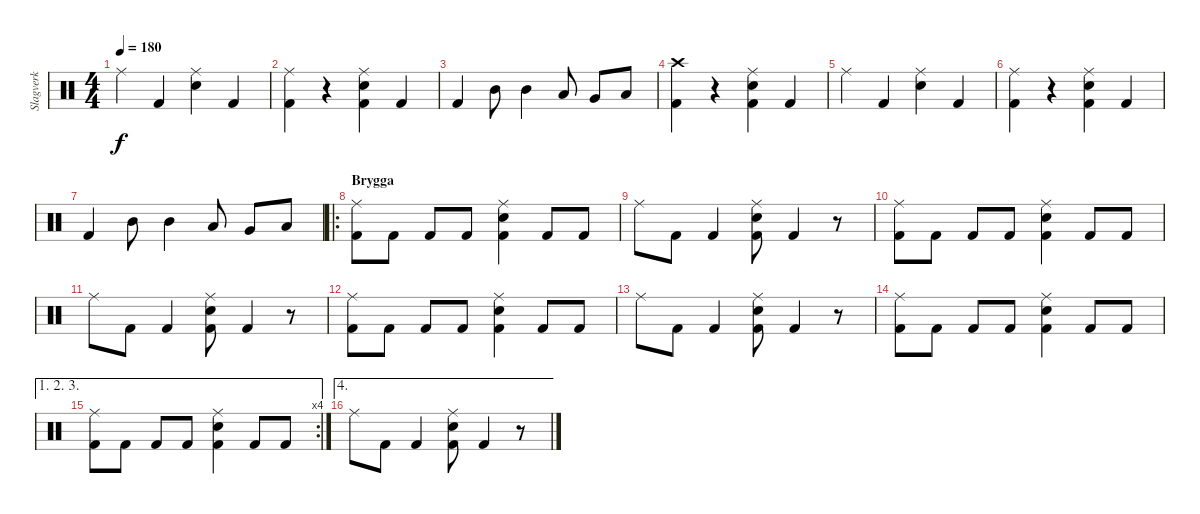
\track ("Slagverk" "Slagverk") {instrument percussion}
\staff {score}
\articulation defaults
\ts (4 4)
\tempo 180
\clef neutral
\ks c "Ride (middle)".4{dy f} "Kick (hit) 2".4
("Snare (hit) 2" "Ride (middle)").4 "Kick (hit) 2".4 |
("Kick (hit) 2" "Ride (middle)").4 r.4 ("Kick (hit) 2" "Snare (hit) 2" "Ride (middle)").4 "Kick (hit) 2".4 |
"Kick (hit) 2".4 "Mid Tom (hit)".8 "Mid Tom (hit)".4 "Low Tom (hit)".8 "Very Low Tom (hit)".8 "Low Floor Tom (hit)".8 |
("Kick (hit) 2" "Crash high (hit)").4 r.4 ("Kick (hit) 2" "Snare (hit) 2" "Ride (middle)").4 "Kick (hit) 2".4 |
"Ride (middle)".4 "Kick (hit) 2".4 ("Snare (hit) 2" "Ride (middle)").4 "Kick (hit) 2".4 |
("Kick (hit) 2" "Ride (middle)").4 r.4 ("Kick (hit) 2" "Snare (hit) 2" "Ride (middle)").4 "Kick (hit) 2".4 |
"Kick (hit) 2".4 "Mid Tom (hit)".8 "Mid Tom (hit)".4 "Low Tom (hit)".8 "Very Low Tom (hit)".8 "Low Floor Tom (hit)".8 |
\ro
\section ("" "Brygga")
("Kick (hit) 2" "Ride (middle)").8 "Kick (hit) 2".8 "Kick (hit) 2".8 "Kick (hit) 2".8 ("Kick (hit) 2" "Snare (hit) 2" "Ride (middle)").4 "Kick (hit) 2".8 "Kick (hit) 2".8 |
"Ride (middle)".8 "Kick (hit) 2".8 "Kick (hit) 2".4 ("Kick (hit) 2" "Snare (hit) 2" "Ride (middle)").8 "Kick (hit) 2".4 r.8 |
("Kick (hit) 2" "Ride (middle)").8 "Kick (hit) 2".8 "Kick (hit) 2".8 "Kick (hit) 2".8 ("Kick (hit) 2" "Snare (hit) 2" "Ride (middle)").4 "Kick (hit) 2".8 "Kick (hit) 2".8 |
"Ride (middle)".8 "Kick (hit) 2".8 "Kick (hit) 2".4 ("Kick (hit) 2" "Snare (hit) 2" "Ride (middle)").8 "Kick (hit) 2".4 r.8 |
("Kick (hit) 2" "Ride (middle)").8 "Kick (hit) 2".8 "Kick (hit) 2".8 "Kick (hit) 2".8 ("Kick (hit) 2" "Snare (hit) 2" "Ride (middle)").4 "Kick (hit) 2".8 "Kick (hit) 2".8 |
"Ride (middle)".8 "Kick (hit) 2".8 "Kick (hit) 2".4 ("Kick (hit) 2" "Snare (hit) 2" "Ride (middle)").8 "Kick (hit) 2".4 r.8 |
("Kick (hit) 2" "Ride (middle)").8 "Kick (hit) 2".8 "Kick (hit) 2".8 "Kick (hit) 2".8 ("Kick (hit) 2" "Snare (hit) 2" "Ride (middle)").4 "Kick (hit) 2".8 "Kick (hit) 2".8 |
\ae (1 2 3)
\rc 4
("Kick (hit) 2" "Ride (middle)").8 "Kick (hit) 2".8 "Kick (hit) 2".8 "Kick (hit) 2".8 ("Kick (hit) 2" "Snare (hit) 2" "Ride (middle)").4 "Kick (hit) 2".8 "Kick (hit) 2".8 |
\ae 4 "Ride (middle)".8 "Kick (hit) 2".8 "Kick (hit) 2".4
("Kick (hit) 2" "Snare (hit) 2" "Ride (middle)").8 "Kick (hit) 2".4 r.8
